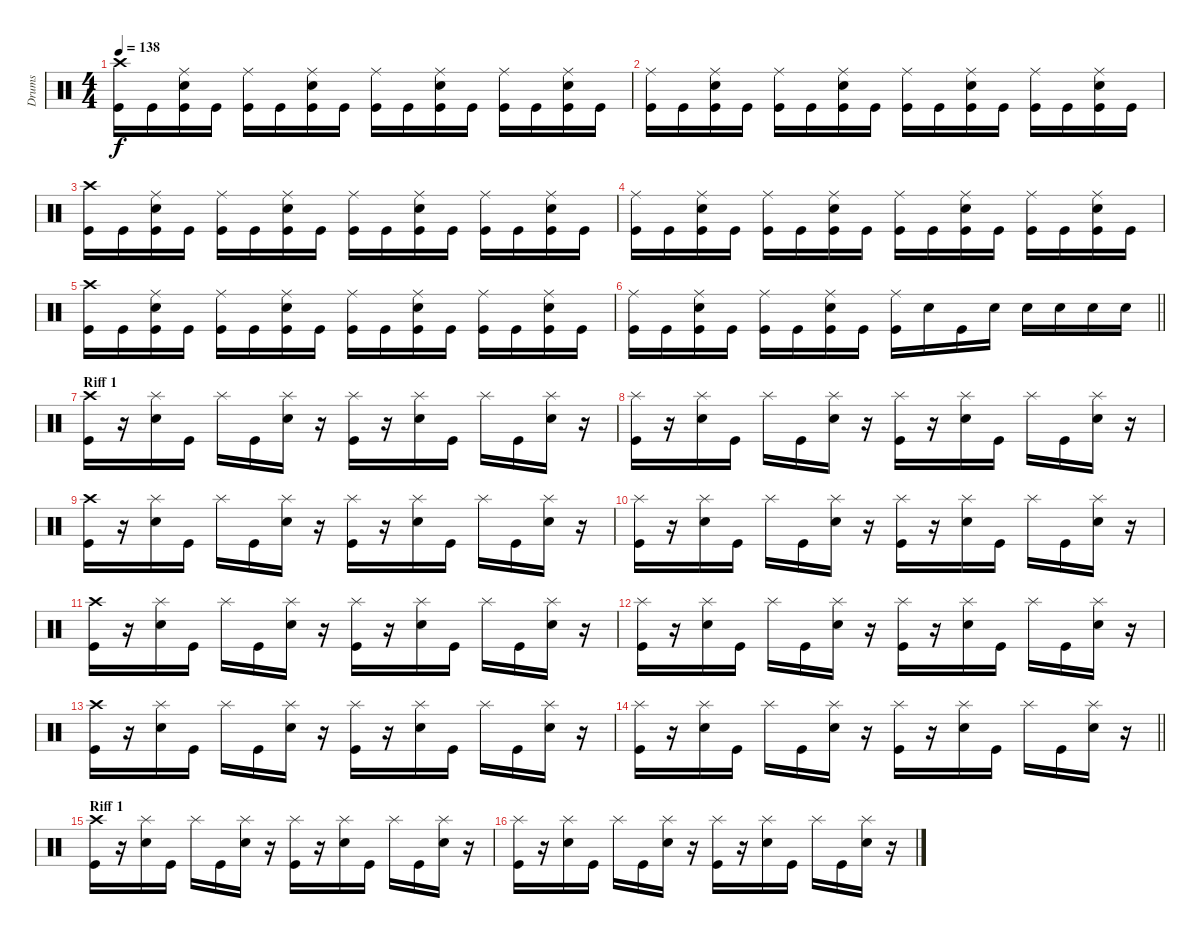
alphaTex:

\track ("Drums" "Drums") {instrument percussion}
\staff {score}
\articulation defaults
\ts (4 4)
\tempo 138
\clef neutral
\ks c
("Crash high (hit)" "Kick (hit)").16{dy f} "Kick (hit)".16 ("Ride (middle)" "Electric Snare (hit)" "Kick (hit)").16 "Kick (hit)".16 ("Ride (middle)" "Kick (hit)").16 "Kick (hit)".16 ("Ride (middle)" "Electric Snare (hit)" "Kick (hit)").16 "Kick (hit)".16 ("Ride (middle)" "Kick (hit)").16 "Kick (hit)".16 ("Ride (middle)" "Electric Snare (hit)" "Kick (hit)").16 "Kick (hit)".16 ("Ride (middle)" "Kick (hit)").16 "Kick (hit)".16 ("Ride (middle)" "Electric Snare (hit)" "Kick (hit)").16 "Kick (hit)".16 |
("Ride (middle)" "Kick (hit)").16 "Kick (hit)".16 ("Ride (middle)" "Electric Snare (hit)" "Kick (hit)").16 "Kick (hit)".16 ("Ride (middle)" "Kick (hit)").16 "Kick (hit)".16 ("Ride (middle)" "Electric Snare (hit)" "Kick (hit)").16 "Kick (hit)".16 ("Ride (middle)" "Kick (hit)").16 "Kick (hit)".16 ("Ride (middle)" "Electric Snare (hit)" "Kick (hit)").16 "Kick (hit)".16 ("Ride (middle)" "Kick (hit)").16 "Kick (hit)".16 ("Ride (middle)" "Electric Snare (hit)" "Kick (hit)").16 "Kick (hit)".16 |
("Crash high (hit)" "Kick (hit)").16 "Kick (hit)".16 ("Ride (middle)" "Electric Snare (hit)" "Kick (hit)").16 "Kick (hit)".16 ("Ride (middle)" "Kick (hit)").16 "Kick (hit)".16 ("Ride (middle)" "Electric Snare (hit)" "Kick (hit)").16 "Kick (hit)".16 ("Ride (middle)" "Kick (hit)").16 "Kick (hit)".16 ("Ride (middle)" "Electric Snare (hit)" "Kick (hit)").16 "Kick (hit)".16 ("Ride (middle)" "Kick (hit)").16 "Kick (hit)".16 ("Ride (middle)" "Electric Snare (hit)" "Kick (hit)").16 "Kick (hit)".16 |
("Ride (middle)" "Kick (hit)").16 "Kick (hit)".16 ("Ride (middle)" "Electric Snare (hit)" "Kick (hit)").16 "Kick (hit)".16 ("Ride (middle)" "Kick (hit)").16 "Kick (hit)".16 ("Ride (middle)" "Electric Snare (hit)" "Kick (hit)").16 "Kick (hit)".16 ("Ride (middle)" "Kick (hit)").16 "Kick (hit)".16 ("Ride (middle)" "Electric Snare (hit)" "Kick (hit)").16 "Kick (hit)".16 ("Ride (middle)" "Kick (hit)").16 "Kick (hit)".16 ("Ride (middle)" "Electric Snare (hit)" "Kick (hit)").16 "Kick (hit)".16 |
("Crash high (hit)" "Kick (hit)").16 "Kick (hit)".16 ("Ride (middle)" "Electric Snare (hit)" "Kick (hit)").16 "Kick (hit)".16 ("Ride (middle)" "Kick (hit)").16 "Kick (hit)".16 ("Ride (middle)" "Electric Snare (hit)" "Kick (hit)").16 "Kick (hit)".16 ("Ride (middle)" "Kick (hit)").16 "Kick (hit)".16 ("Ride (middle)" "Electric Snare (hit)" "Kick (hit)").16 "Kick (hit)".16 ("Ride (middle)" "Kick (hit)").16 "Kick (hit)".16 ("Ride (middle)" "Electric Snare (hit)" "Kick (hit)").16 "Kick (hit)".16 |
\barLineRight lightlight
("Ride (middle)" "Kick (hit)").16 "Kick (hit)".16 ("Ride (middle)" "Electric Snare (hit)" "Kick (hit)").16 "Kick (hit)".16 ("Ride (middle)" "Kick (hit)").16 "Kick (hit)".16 ("Ride (middle)" "Electric Snare (hit)" "Kick (hit)").16 "Kick (hit)".16 ("Ride (middle)" "Kick (hit)").16 "Electric Snare (hit)".16 "Kick (hit)".16 "Electric Snare (hit)".16 "Electric Snare (hit)".16 "Electric Snare (hit)".16 "Electric Snare (hit)".16 "Electric Snare (hit)".16 |
\section ("" "Riff 1")
("Crash high (hit)" "Kick (hit)").16 r.16 ("Splash (hit)" "Electric Snare (hit)").16 "Kick (hit)".16 "Splash (hit)".16 "Kick (hit)".16 ("Splash (hit)" "Electric Snare (hit)").16 r.16 ("Splash (hit)" "Kick (hit)").16 r.16 ("Splash (hit)" "Electric Snare (hit)").16 "Kick (hit)".16 "Splash (hit)".16 "Kick (hit)".16 ("Splash (hit)" "Electric Snare (hit)").16 r.16 |
("Splash (hit)" "Kick (hit)").16 r.16 ("Splash (hit)" "Electric Snare (hit)").16 "Kick (hit)".16 "Splash (hit)".16 "Kick (hit)".16 ("Splash (hit)" "Electric Snare (hit)").16 r.16 ("Splash (hit)" "Kick (hit)").16 r.16 ("Splash (hit)" "Electric Snare (hit)").16 "Kick (hit)".16 "Splash (hit)".16 "Kick (hit)".16 ("Splash (hit)" "Electric Snare (hit)").16 r.16 |
("Crash high (hit)" "Kick (hit)").16 r.16 ("Splash (hit)" "Electric Snare (hit)").16 "Kick (hit)".16 "Splash (hit)".16 "Kick (hit)".16 ("Splash (hit)" "Electric Snare (hit)").16 r.16 ("Splash (hit)" "Kick (hit)").16 r.16 ("Splash (hit)" "Electric Snare (hit)").16 "Kick (hit)".16 "Splash (hit)".16 "Kick (hit)".16 ("Splash (hit)" "Electric Snare (hit)").16 r.16 |
("Splash (hit)" "Kick (hit)").16 r.16 ("Splash (hit)" "Electric Snare (hit)").16 "Kick (hit)".16 "Splash (hit)".16 "Kick (hit)".16 ("Splash (hit)" "Electric Snare (hit)").16 r.16 ("Splash (hit)" "Kick (hit)").16 r.16 ("Splash (hit)" "Electric Snare (hit)").16 "Kick (hit)".16 "Splash (hit)".16 "Kick (hit)".16 ("Splash (hit)" "Electric Snare (hit)").16 r.16 |
("Crash high (hit)" "Kick (hit)").16 r.16 ("Splash (hit)" "Electric Snare (hit)").16 "Kick (hit)".16 "Splash (hit)".16 "Kick (hit)".16 ("Splash (hit)" "Electric Snare (hit)").16 r.16 ("Splash (hit)" "Kick (hit)").16 r.16 ("Splash (hit)" "Electric Snare (hit)").16 "Kick (hit)".16 "Splash (hit)".16 "Kick (hit)".16 ("Splash (hit)" "Electric Snare (hit)").16 r.16 |
("Splash (hit)" "Kick (hit)").16 r.16 ("Splash (hit)" "Electric Snare (hit)").16 "Kick (hit)".16 "Splash (hit)".16 "Kick (hit)".16 ("Splash (hit)" "Electric Snare (hit)").16 r.16 ("Splash (hit)" "Kick (hit)").16 r.16 ("Splash (hit)" "Electric Snare (hit)").16 "Kick (hit)".16 "Splash (hit)".16 "Kick (hit)".16 ("Splash (hit)" "Electric Snare (hit)").16 r.16 |
("Crash high (hit)" "Kick (hit)").16 r.16 ("Splash (hit)" "Electric Snare (hit)").16 "Kick (hit)".16 "Splash (hit)".16 "Kick (hit)".16 ("Splash (hit)" "Electric Snare (hit)").16 r.16 ("Splash (hit)" "Kick (hit)").16 r.16 ("Splash (hit)" "Electric Snare (hit)").16 "Kick (hit)".16 "Splash (hit)".16 "Kick (hit)".16 ("Splash (hit)" "Electric Snare (hit)").16 r.16 |
\barLineRight lightlight
("Splash (hit)" "Kick (hit)").16 r.16 ("Splash (hit)" "Electric Snare (hit)").16 "Kick (hit)".16 "Splash (hit)".16 "Kick (hit)".16 ("Splash (hit)" "Electric Snare (hit)").16 r.16 ("Splash (hit)" "Kick (hit)").16 r.16 ("Splash (hit)" "Electric Snare (hit)").16 "Kick (hit)".16 "Splash (hit)".16 "Kick (hit)".16 ("Splash (hit)" "Electric Snare (hit)").16 r.16 |
\section ("" "Riff 1")
("Crash high (hit)" "Kick (hit)").16 r.16 ("Splash (hit)" "Electric Snare (hit)").16 "Kick (hit)".16 "Splash (hit)".16 "Kick (hit)".16 ("Splash (hit)" "Electric Snare (hit)").16 r.16 ("Splash (hit)" "Kick (hit)").16 r.16 ("Splash (hit)" "Electric Snare (hit)").16 "Kick (hit)".16 "Splash (hit)".16 "Kick (hit)".16 ("Splash (hit)" "Electric Snare (hit)").16 r.16 |
("Splash (hit)" "Kick (hit)").16 r.16 ("Splash (hit)" "Electric Snare (hit)").16 "Kick (hit)".16 "Splash (hit)".16 "Kick (hit)".16 ("Splash (hit)" "Electric Snare (hit)").16 r.16 ("Splash (hit)" "Kick (hit)").16 r.16 ("Splash (hit)" "Electric Snare (hit)").16 "Kick (hit)".16 "Splash (hit)".16 "Kick (hit)".16 ("Splash (hit)" "Electric Snare (hit)").16 r.16
